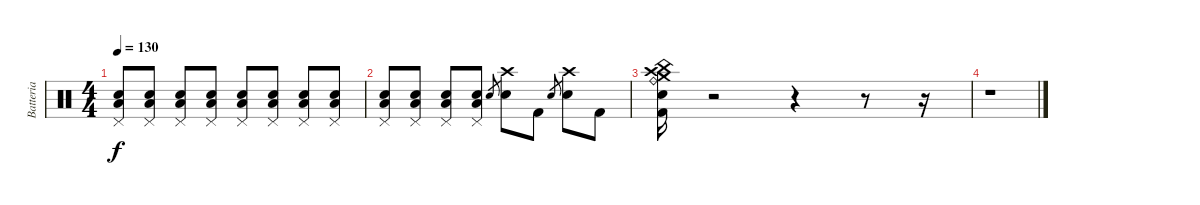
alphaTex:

\track ("Batteria" "Batteria") {instrument percussion}
\staff {score}
\articulation defaults
\ts (4 4)
\tempo 130
\clef neutral
\ks c
("Pedal Hi-Hat (hit)" "Electric Snare (hit)" "Low Tom (hit)").8{dy f} ("Pedal Hi-Hat (hit)" "Electric Snare (hit)" "Low Tom (hit)").8 ("Pedal Hi-Hat (hit)" "Electric Snare (hit)" "Low Tom (hit)").8 ("Pedal Hi-Hat (hit)" "Electric Snare (hit)" "Low Tom (hit)").8 ("Pedal Hi-Hat (hit)" "Electric Snare (hit)" "Low Tom (hit)").8 ("Pedal Hi-Hat (hit)" "Electric Snare (hit)" "Low Tom (hit)").8 ("Pedal Hi-Hat (hit)" "Electric Snare (hit)" "Low Tom (hit)").8 ("Pedal Hi-Hat (hit)" "Electric Snare (hit)" "Low Tom (hit)").8 |
("Pedal Hi-Hat (hit)" "Electric Snare (hit)" "Low Tom (hit)").8 ("Pedal Hi-Hat (hit)" "Electric Snare (hit)" "Low Tom (hit)").8 ("Pedal Hi-Hat (hit)" "Electric Snare (hit)" "Low Tom (hit)").8 ("Pedal Hi-Hat (hit)" "Electric Snare (hit)" "Low Tom (hit)").8 "Electric Snare (hit)".8{gr} ("Crash high (hit)" "Electric Snare (hit)").8 "Kick (hit) 2".8 "Electric Snare (hit)".8{gr} ("Crash high (hit)" "Electric Snare (hit)").8 "Kick (hit) 2".8 |
("Crash high (hit)" "China (hit)" "Crash medium (hit)" "Electric Snare (hit)" "Kick (hit) 2" "Ride (bell)").16 r.2 r.4 r.8 r.16 |
r.1
